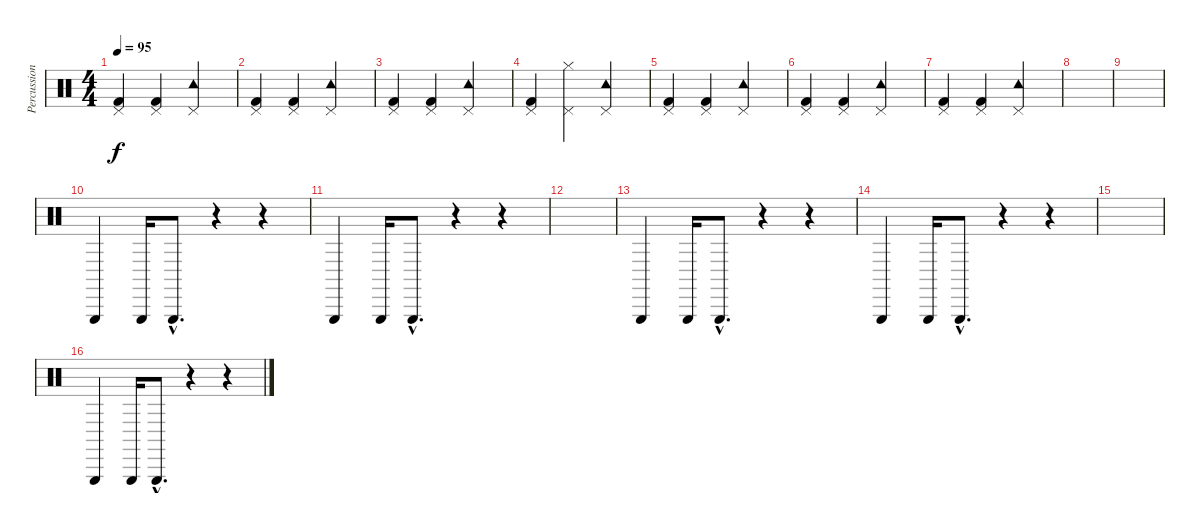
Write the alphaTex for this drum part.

\track ("Percussions" "Percussion") {instrument percussion}
\staff {score}
\articulation defaults
\ts (4 4)
\tempo 95
\clef neutral
\ks c
("Kick (hit) 2" "Pedal Hi-Hat (hit)").4{dy f} ("Kick (hit) 2" "Pedal Hi-Hat (hit)").4 ("Tambourine (hit)" "Pedal Hi-Hat (hit)").2 |
("Kick (hit) 2" "Pedal Hi-Hat (hit)").4 ("Kick (hit) 2" "Pedal Hi-Hat (hit)").4 ("Tambourine (hit)" "Pedal Hi-Hat (hit)").2 |
("Kick (hit) 2" "Pedal Hi-Hat (hit)").4 ("Kick (hit) 2" "Pedal Hi-Hat (hit)").4 ("Tambourine (hit)" "Pedal Hi-Hat (hit)").2 |
("Kick (hit) 2" "Pedal Hi-Hat (hit)").4 ("Hi-Hat (closed)" "Pedal Hi-Hat (hit)").4 ("Tambourine (hit)" "Pedal Hi-Hat (hit)").2 |
("Kick (hit) 2" "Pedal Hi-Hat (hit)").4 ("Kick (hit) 2" "Pedal Hi-Hat (hit)").4 ("Tambourine (hit)" "Pedal Hi-Hat (hit)").2 |
("Kick (hit) 2" "Pedal Hi-Hat (hit)").4 ("Kick (hit) 2" "Pedal Hi-Hat (hit)").4 ("Tambourine (hit)" "Pedal Hi-Hat (hit)").2 |
("Kick (hit) 2" "Pedal Hi-Hat (hit)").4 ("Kick (hit) 2" "Pedal Hi-Hat (hit)").4 ("Tambourine (hit)" "Pedal Hi-Hat (hit)").2 |
|
|
"Triangle (hit)".4 "Triangle (hit)".16 "Triangle (hit)"{hac}.8{d} r.4 r.4 |
"Triangle (hit)".4 "Triangle (hit)".16 "Triangle (hit)"{hac}.8{d} r.4 r.4 |
|
"Triangle (hit)".4 "Triangle (hit)".16 "Triangle (hit)"{hac}.8{d} r.4 r.4 |
"Triangle (hit)".4 "Triangle (hit)".16 "Triangle (hit)"{hac}.8{d} r.4 r.4 |
|
"Triangle (hit)".4 "Triangle (hit)".16 "Triangle (hit)"{hac}.8{d} r.4 r.4
